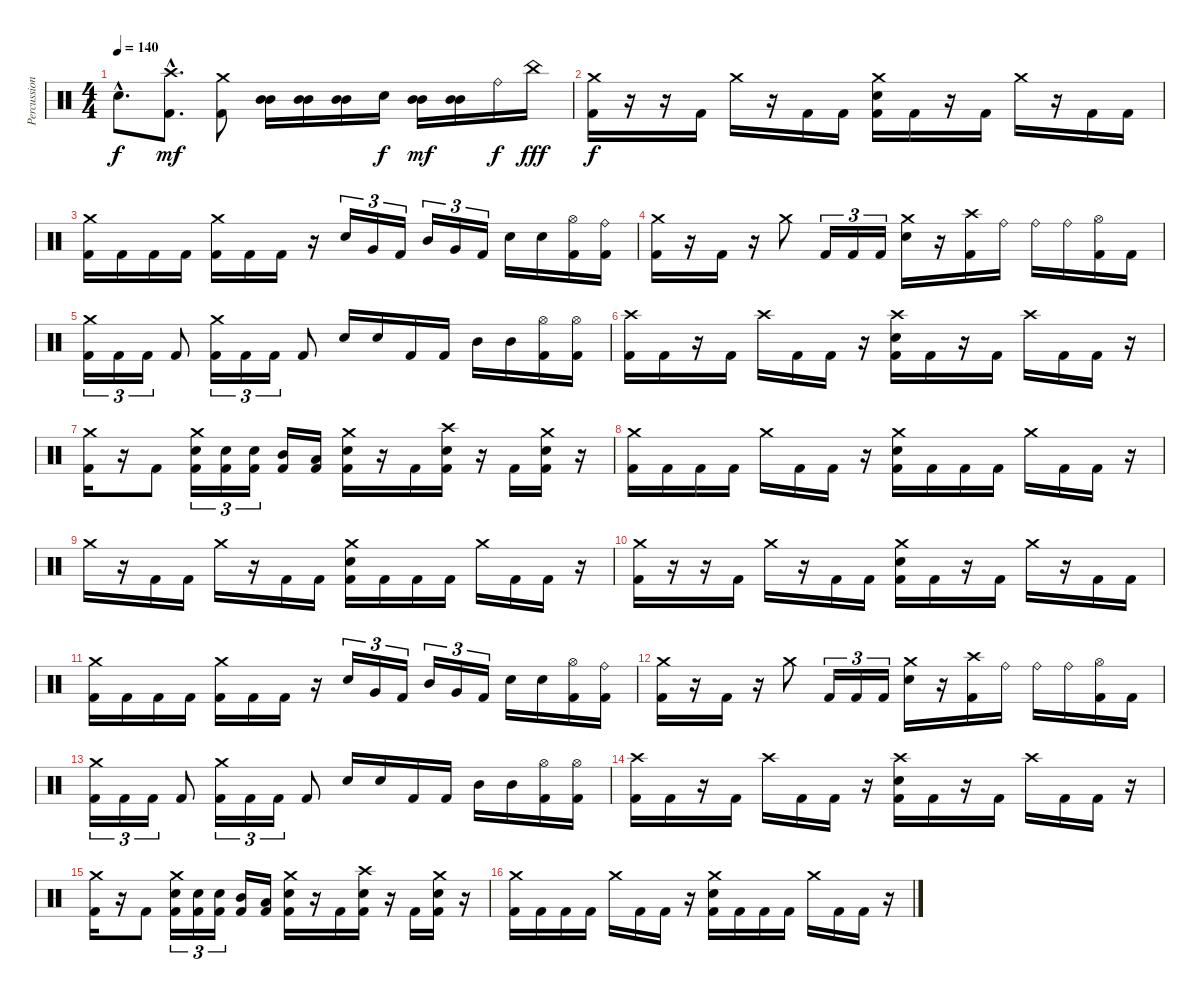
\track ("Percussion" "Percussion") {instrument percussion}
\staff {score}
\articulation defaults
\ts (4 4)
\tempo 140
\clef neutral
\ks c "Electric Snare (hit)"{hac}.8{d dy f}
("Kick (hit) 2"{hac} "Crash high (hit)"{hac}).8{d dy mf} ("Kick (hit) 2" "Crash medium (hit)").8 ("Mid Tom (hit)" "Mid Tom (hit)").16 ("Mid Tom (hit)" "Mid Tom (hit)").16 ("Mid Tom (hit)" "Mid Tom (hit)").16 "Electric Snare (hit)".16{dy f} ("Mid Tom (hit)" "Mid Tom (hit)").16{dy mf} ("Mid Tom (hit)" "Mid Tom (hit)").16 "Ride (bell)".16{dy f} "China (hit)".16{dy fff} |
("Crash medium (hit)" "Kick (hit) 2").16{dy f} r.16 r.16 "Kick (hit) 2".16 "Crash medium (hit)".16 r.16 "Kick (hit) 2".16 "Kick (hit) 2".16 ("Crash medium (hit)" "Electric Snare (hit)" "Kick (hit) 2").16 "Kick (hit) 2".16 r.16 "Kick (hit) 2".16 "Crash medium (hit)".16 r.16 "Kick (hit) 2".16 "Kick (hit) 2".16 |
("Crash medium (hit)" "Kick (hit) 2").16 "Kick (hit) 2".16 "Kick (hit) 2".16 "Kick (hit) 2".16 ("Crash medium (hit)" "Kick (hit) 2").16 "Kick (hit) 2".16 "Kick (hit) 2".16 r.16 "Electric Snare (hit)".16{tu (3 2)} "Very Low Tom (hit)".16{tu (3 2)} "Kick (hit) 2".16{tu (3 2)} "Mid Tom (hit)".16{tu (3 2)} "Very Low Tom (hit)".16{tu (3 2)} "Kick (hit) 2".16{tu (3 2)} "Electric Snare (hit)".16 "Electric Snare (hit)".16 ("Hi-Hat (open)" "Kick (hit) 2").16 ("Ride (bell)" "Kick (hit) 2").16 |
("Crash medium (hit)" "Kick (hit) 2").16 r.16 "Kick (hit) 2".16 r.16 "Crash medium (hit)".8 "Kick (hit) 2".16{tu (3 2)} "Kick (hit) 2".16{tu (3 2)} "Kick (hit) 2".16{tu (3 2)} ("Crash medium (hit)" "Electric Snare (hit)").16 r.16 ("Crash high (hit)" "Kick (hit) 2").16 "Ride (bell)".16 "Ride (bell)".16 "Ride (bell)".16 ("Hi-Hat (open)" "Kick (hit) 2").16 "Kick (hit) 2".16 |
("Crash medium (hit)" "Kick (hit) 2").16{tu (3 2)} "Kick (hit) 2".16{tu (3 2)} "Kick (hit) 2".16{tu (3 2)} "Kick (hit) 2".8 ("Crash medium (hit)" "Kick (hit) 2").16{tu (3 2)} "Kick (hit) 2".16{tu (3 2)} "Kick (hit) 2".16{tu (3 2)} "Kick (hit) 2".8 "Electric Snare (hit)".16 "Electric Snare (hit)".16 "Kick (hit) 2".16 "Kick (hit) 2".16 "Mid Tom (hit)".16 "Mid Tom (hit)".16 ("Hi-Hat (open)" "Kick (hit) 2").16 ("Hi-Hat (open)" "Kick (hit) 2").16 |
("Crash high (hit)" "Kick (hit) 2").16 "Kick (hit) 2".16 r.16 "Kick (hit) 2".16 "Crash high (hit)".16 "Kick (hit) 2".16 "Kick (hit) 2".16 r.16 ("Crash high (hit)" "Electric Snare (hit)" "Kick (hit) 2").16 "Kick (hit) 2".16 r.16 "Kick (hit) 2".16 "Crash high (hit)".16 "Kick (hit) 2".16 "Kick (hit) 2".16 r.16 |
("Crash medium (hit)" "Kick (hit) 2").16 r.16 "Kick (hit) 2".8 ("Crash medium (hit)" "Electric Snare (hit)" "Kick (hit) 2").16{tu (3 2)} ("Electric Snare (hit)" "Kick (hit) 2").16{tu (3 2)} ("Electric Snare (hit)" "Kick (hit) 2").16{tu (3 2)} ("Mid Tom (hit)" "Kick (hit) 2").16 ("Low Tom (hit)" "Kick (hit) 2").16 ("Crash medium (hit)" "Electric Snare (hit)" "Kick (hit) 2").16 r.16 "Kick (hit) 2".16 ("Crash high (hit)" "Electric Snare (hit)" "Kick (hit) 2").16 r.16 "Kick (hit) 2".16 ("Crash medium (hit)" "Electric Snare (hit)" "Kick (hit) 2").16 r.16 |
("Crash medium (hit)" "Kick (hit) 2").16 "Kick (hit) 2".16 "Kick (hit) 2".16 "Kick (hit) 2".16 "Crash medium (hit)".16 "Kick (hit) 2".16 "Kick (hit) 2".16 r.16 ("Crash medium (hit)" "Electric Snare (hit)" "Kick (hit) 2").16 "Kick (hit) 2".16 "Kick (hit) 2".16 "Kick (hit) 2".16 "Crash medium (hit)".16 "Kick (hit) 2".16 "Kick (hit) 2".16 r.16 |
"Crash medium (hit)".16 r.16 "Kick (hit) 2".16 "Kick (hit) 2".16 "Crash medium (hit)".16 r.16 "Kick (hit) 2".16 "Kick (hit) 2".16 ("Crash medium (hit)" "Electric Snare (hit)" "Kick (hit) 2").16 "Kick (hit) 2".16 "Kick (hit) 2".16 "Kick (hit) 2".16 "Crash medium (hit)".16 "Kick (hit) 2".16 "Kick (hit) 2".16 r.16 |
("Crash medium (hit)" "Kick (hit) 2").16 r.16 r.16 "Kick (hit) 2".16 "Crash medium (hit)".16 r.16 "Kick (hit) 2".16 "Kick (hit) 2".16 ("Crash medium (hit)" "Electric Snare (hit)" "Kick (hit) 2").16 "Kick (hit) 2".16 r.16 "Kick (hit) 2".16 "Crash medium (hit)".16 r.16 "Kick (hit) 2".16 "Kick (hit) 2".16 |
("Crash medium (hit)" "Kick (hit) 2").16 "Kick (hit) 2".16 "Kick (hit) 2".16 "Kick (hit) 2".16 ("Crash medium (hit)" "Kick (hit) 2").16 "Kick (hit) 2".16 "Kick (hit) 2".16 r.16 "Electric Snare (hit)".16{tu (3 2)} "Very Low Tom (hit)".16{tu (3 2)} "Kick (hit) 2".16{tu (3 2)} "Mid Tom (hit)".16{tu (3 2)} "Very Low Tom (hit)".16{tu (3 2)} "Kick (hit) 2".16{tu (3 2)} "Electric Snare (hit)".16 "Electric Snare (hit)".16 ("Hi-Hat (open)" "Kick (hit) 2").16 ("Ride (bell)" "Kick (hit) 2").16 |
("Crash medium (hit)" "Kick (hit) 2").16 r.16 "Kick (hit) 2".16 r.16 "Crash medium (hit)".8 "Kick (hit) 2".16{tu (3 2)} "Kick (hit) 2".16{tu (3 2)} "Kick (hit) 2".16{tu (3 2)} ("Crash medium (hit)" "Electric Snare (hit)").16 r.16 ("Crash high (hit)" "Kick (hit) 2").16 "Ride (bell)".16 "Ride (bell)".16 "Ride (bell)".16 ("Hi-Hat (open)" "Kick (hit) 2").16 "Kick (hit) 2".16 |
("Crash medium (hit)" "Kick (hit) 2").16{tu (3 2)} "Kick (hit) 2".16{tu (3 2)} "Kick (hit) 2".16{tu (3 2)} "Kick (hit) 2".8 ("Crash medium (hit)" "Kick (hit) 2").16{tu (3 2)} "Kick (hit) 2".16{tu (3 2)} "Kick (hit) 2".16{tu (3 2)} "Kick (hit) 2".8 "Electric Snare (hit)".16 "Electric Snare (hit)".16 "Kick (hit) 2".16 "Kick (hit) 2".16 "Mid Tom (hit)".16 "Mid Tom (hit)".16 ("Hi-Hat (open)" "Kick (hit) 2").16 ("Hi-Hat (open)" "Kick (hit) 2").16 |
("Crash high (hit)" "Kick (hit) 2").16 "Kick (hit) 2".16 r.16 "Kick (hit) 2".16 "Crash high (hit)".16 "Kick (hit) 2".16 "Kick (hit) 2".16 r.16 ("Crash high (hit)" "Electric Snare (hit)" "Kick (hit) 2").16 "Kick (hit) 2".16 r.16 "Kick (hit) 2".16 "Crash high (hit)".16 "Kick (hit) 2".16 "Kick (hit) 2".16 r.16 |
("Crash medium (hit)" "Kick (hit) 2").16 r.16 "Kick (hit) 2".8 ("Crash medium (hit)" "Electric Snare (hit)" "Kick (hit) 2").16{tu (3 2)} ("Electric Snare (hit)" "Kick (hit) 2").16{tu (3 2)} ("Electric Snare (hit)" "Kick (hit) 2").16{tu (3 2)} ("Mid Tom (hit)" "Kick (hit) 2").16 ("Low Tom (hit)" "Kick (hit) 2").16 ("Crash medium (hit)" "Electric Snare (hit)" "Kick (hit) 2").16 r.16 "Kick (hit) 2".16 ("Crash high (hit)" "Electric Snare (hit)" "Kick (hit) 2").16 r.16 "Kick (hit) 2".16 ("Crash medium (hit)" "Electric Snare (hit)" "Kick (hit) 2").16 r.16 |
("Crash medium (hit)" "Kick (hit) 2").16 "Kick (hit) 2".16 "Kick (hit) 2".16 "Kick (hit) 2".16 "Crash medium (hit)".16 "Kick (hit) 2".16 "Kick (hit) 2".16 r.16 ("Crash medium (hit)" "Electric Snare (hit)" "Kick (hit) 2").16 "Kick (hit) 2".16 "Kick (hit) 2".16 "Kick (hit) 2".16 "Crash medium (hit)".16 "Kick (hit) 2".16 "Kick (hit) 2".16 r.16
